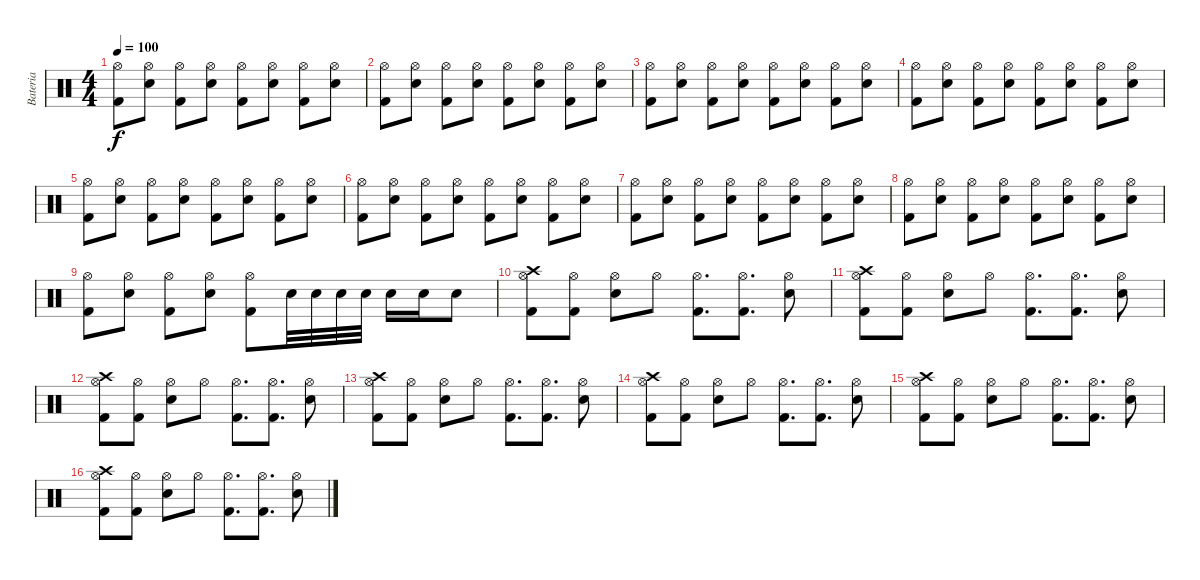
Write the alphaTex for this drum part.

\track ("Bateria" "Bateria") {instrument percussion}
\staff {score}
\articulation defaults
\ts (4 4)
\tempo 100
\clef neutral
\ks c
("Hi-Hat (open)" "Kick (hit) 2").8{dy f} ("Hi-Hat (open)" "Electric Snare (hit)").8 ("Hi-Hat (open)" "Kick (hit) 2").8 ("Hi-Hat (open)" "Electric Snare (hit)").8 ("Hi-Hat (open)" "Kick (hit) 2").8 ("Hi-Hat (open)" "Electric Snare (hit)").8 ("Hi-Hat (open)" "Kick (hit) 2").8 ("Hi-Hat (open)" "Electric Snare (hit)").8 |
("Hi-Hat (open)" "Kick (hit) 2").8 ("Hi-Hat (open)" "Electric Snare (hit)").8 ("Hi-Hat (open)" "Kick (hit) 2").8 ("Hi-Hat (open)" "Electric Snare (hit)").8 ("Hi-Hat (open)" "Kick (hit) 2").8 ("Hi-Hat (open)" "Electric Snare (hit)").8 ("Hi-Hat (open)" "Kick (hit) 2").8 ("Hi-Hat (open)" "Electric Snare (hit)").8 |
("Hi-Hat (open)" "Kick (hit) 2").8 ("Hi-Hat (open)" "Electric Snare (hit)").8 ("Hi-Hat (open)" "Kick (hit) 2").8 ("Hi-Hat (open)" "Electric Snare (hit)").8 ("Hi-Hat (open)" "Kick (hit) 2").8 ("Hi-Hat (open)" "Electric Snare (hit)").8 ("Hi-Hat (open)" "Kick (hit) 2").8 ("Hi-Hat (open)" "Electric Snare (hit)").8 |
("Hi-Hat (open)" "Kick (hit) 2").8 ("Hi-Hat (open)" "Electric Snare (hit)").8 ("Hi-Hat (open)" "Kick (hit) 2").8 ("Hi-Hat (open)" "Electric Snare (hit)").8 ("Hi-Hat (open)" "Kick (hit) 2").8 ("Hi-Hat (open)" "Electric Snare (hit)").8 ("Hi-Hat (open)" "Kick (hit) 2").8 ("Hi-Hat (open)" "Electric Snare (hit)").8 |
("Hi-Hat (open)" "Kick (hit) 2").8 ("Hi-Hat (open)" "Electric Snare (hit)").8 ("Hi-Hat (open)" "Kick (hit) 2").8 ("Hi-Hat (open)" "Electric Snare (hit)").8 ("Hi-Hat (open)" "Kick (hit) 2").8 ("Hi-Hat (open)" "Electric Snare (hit)").8 ("Hi-Hat (open)" "Kick (hit) 2").8 ("Hi-Hat (open)" "Electric Snare (hit)").8 |
("Hi-Hat (open)" "Kick (hit) 2").8 ("Hi-Hat (open)" "Electric Snare (hit)").8 ("Hi-Hat (open)" "Kick (hit) 2").8 ("Hi-Hat (open)" "Electric Snare (hit)").8 ("Hi-Hat (open)" "Kick (hit) 2").8 ("Hi-Hat (open)" "Electric Snare (hit)").8 ("Hi-Hat (open)" "Kick (hit) 2").8 ("Hi-Hat (open)" "Electric Snare (hit)").8 |
("Hi-Hat (open)" "Kick (hit) 2").8 ("Hi-Hat (open)" "Electric Snare (hit)").8 ("Hi-Hat (open)" "Kick (hit) 2").8 ("Hi-Hat (open)" "Electric Snare (hit)").8 ("Hi-Hat (open)" "Kick (hit) 2").8 ("Hi-Hat (open)" "Electric Snare (hit)").8 ("Hi-Hat (open)" "Kick (hit) 2").8 ("Hi-Hat (open)" "Electric Snare (hit)").8 |
("Hi-Hat (open)" "Kick (hit) 2").8 ("Hi-Hat (open)" "Electric Snare (hit)").8 ("Hi-Hat (open)" "Kick (hit) 2").8 ("Hi-Hat (open)" "Electric Snare (hit)").8 ("Hi-Hat (open)" "Kick (hit) 2").8 ("Hi-Hat (open)" "Electric Snare (hit)").8 ("Hi-Hat (open)" "Kick (hit) 2").8 ("Hi-Hat (open)" "Electric Snare (hit)").8 |
("Hi-Hat (open)" "Kick (hit) 2").8 ("Hi-Hat (open)" "Electric Snare (hit)").8 ("Hi-Hat (open)" "Kick (hit) 2").8 ("Hi-Hat (open)" "Electric Snare (hit)").8 ("Hi-Hat (open)" "Kick (hit) 2").8 "Electric Snare (hit)".32 "Electric Snare (hit)".32 "Electric Snare (hit)".32 "Electric Snare (hit)".32 "Electric Snare (hit)".16 "Electric Snare (hit)".16 "Electric Snare (hit)".8 |
("Hi-Hat (open)" "Kick (hit) 2" "Crash high (hit)").8 ("Hi-Hat (open)" "Kick (hit) 2").8 ("Hi-Hat (open)" "Snare (hit) 2").8 "Hi-Hat (open)".8 ("Hi-Hat (open)" "Kick (hit) 2").8{d} ("Hi-Hat (open)" "Kick (hit) 2").8{d} ("Hi-Hat (open)" "Snare (hit) 2").8 |
("Hi-Hat (open)" "Kick (hit) 2" "Crash high (hit)").8 ("Hi-Hat (open)" "Kick (hit) 2").8 ("Hi-Hat (open)" "Snare (hit) 2").8 "Hi-Hat (open)".8 ("Hi-Hat (open)" "Kick (hit) 2").8{d} ("Hi-Hat (open)" "Kick (hit) 2").8{d} ("Hi-Hat (open)" "Snare (hit) 2").8 |
("Hi-Hat (open)" "Kick (hit) 2" "Crash high (hit)").8 ("Hi-Hat (open)" "Kick (hit) 2").8 ("Hi-Hat (open)" "Snare (hit) 2").8 "Hi-Hat (open)".8 ("Hi-Hat (open)" "Kick (hit) 2").8{d} ("Hi-Hat (open)" "Kick (hit) 2").8{d} ("Hi-Hat (open)" "Snare (hit) 2").8 |
("Hi-Hat (open)" "Kick (hit) 2" "Crash high (hit)").8 ("Hi-Hat (open)" "Kick (hit) 2").8 ("Hi-Hat (open)" "Snare (hit) 2").8 "Hi-Hat (open)".8 ("Hi-Hat (open)" "Kick (hit) 2").8{d} ("Hi-Hat (open)" "Kick (hit) 2").8{d} ("Hi-Hat (open)" "Snare (hit) 2").8 |
("Hi-Hat (open)" "Kick (hit) 2" "Crash high (hit)").8 ("Hi-Hat (open)" "Kick (hit) 2").8 ("Hi-Hat (open)" "Snare (hit) 2").8 "Hi-Hat (open)".8 ("Hi-Hat (open)" "Kick (hit) 2").8{d} ("Hi-Hat (open)" "Kick (hit) 2").8{d} ("Hi-Hat (open)" "Snare (hit) 2").8 |
("Hi-Hat (open)" "Kick (hit) 2" "Crash high (hit)").8 ("Hi-Hat (open)" "Kick (hit) 2").8 ("Hi-Hat (open)" "Snare (hit) 2").8 "Hi-Hat (open)".8 ("Hi-Hat (open)" "Kick (hit) 2").8{d} ("Hi-Hat (open)" "Kick (hit) 2").8{d} ("Hi-Hat (open)" "Snare (hit) 2").8 |
("Hi-Hat (open)" "Kick (hit) 2" "Crash high (hit)").8 ("Hi-Hat (open)" "Kick (hit) 2").8 ("Hi-Hat (open)" "Snare (hit) 2").8 "Hi-Hat (open)".8 ("Hi-Hat (open)" "Kick (hit) 2").8{d} ("Hi-Hat (open)" "Kick (hit) 2").8{d} ("Hi-Hat (open)" "Snare (hit) 2").8
